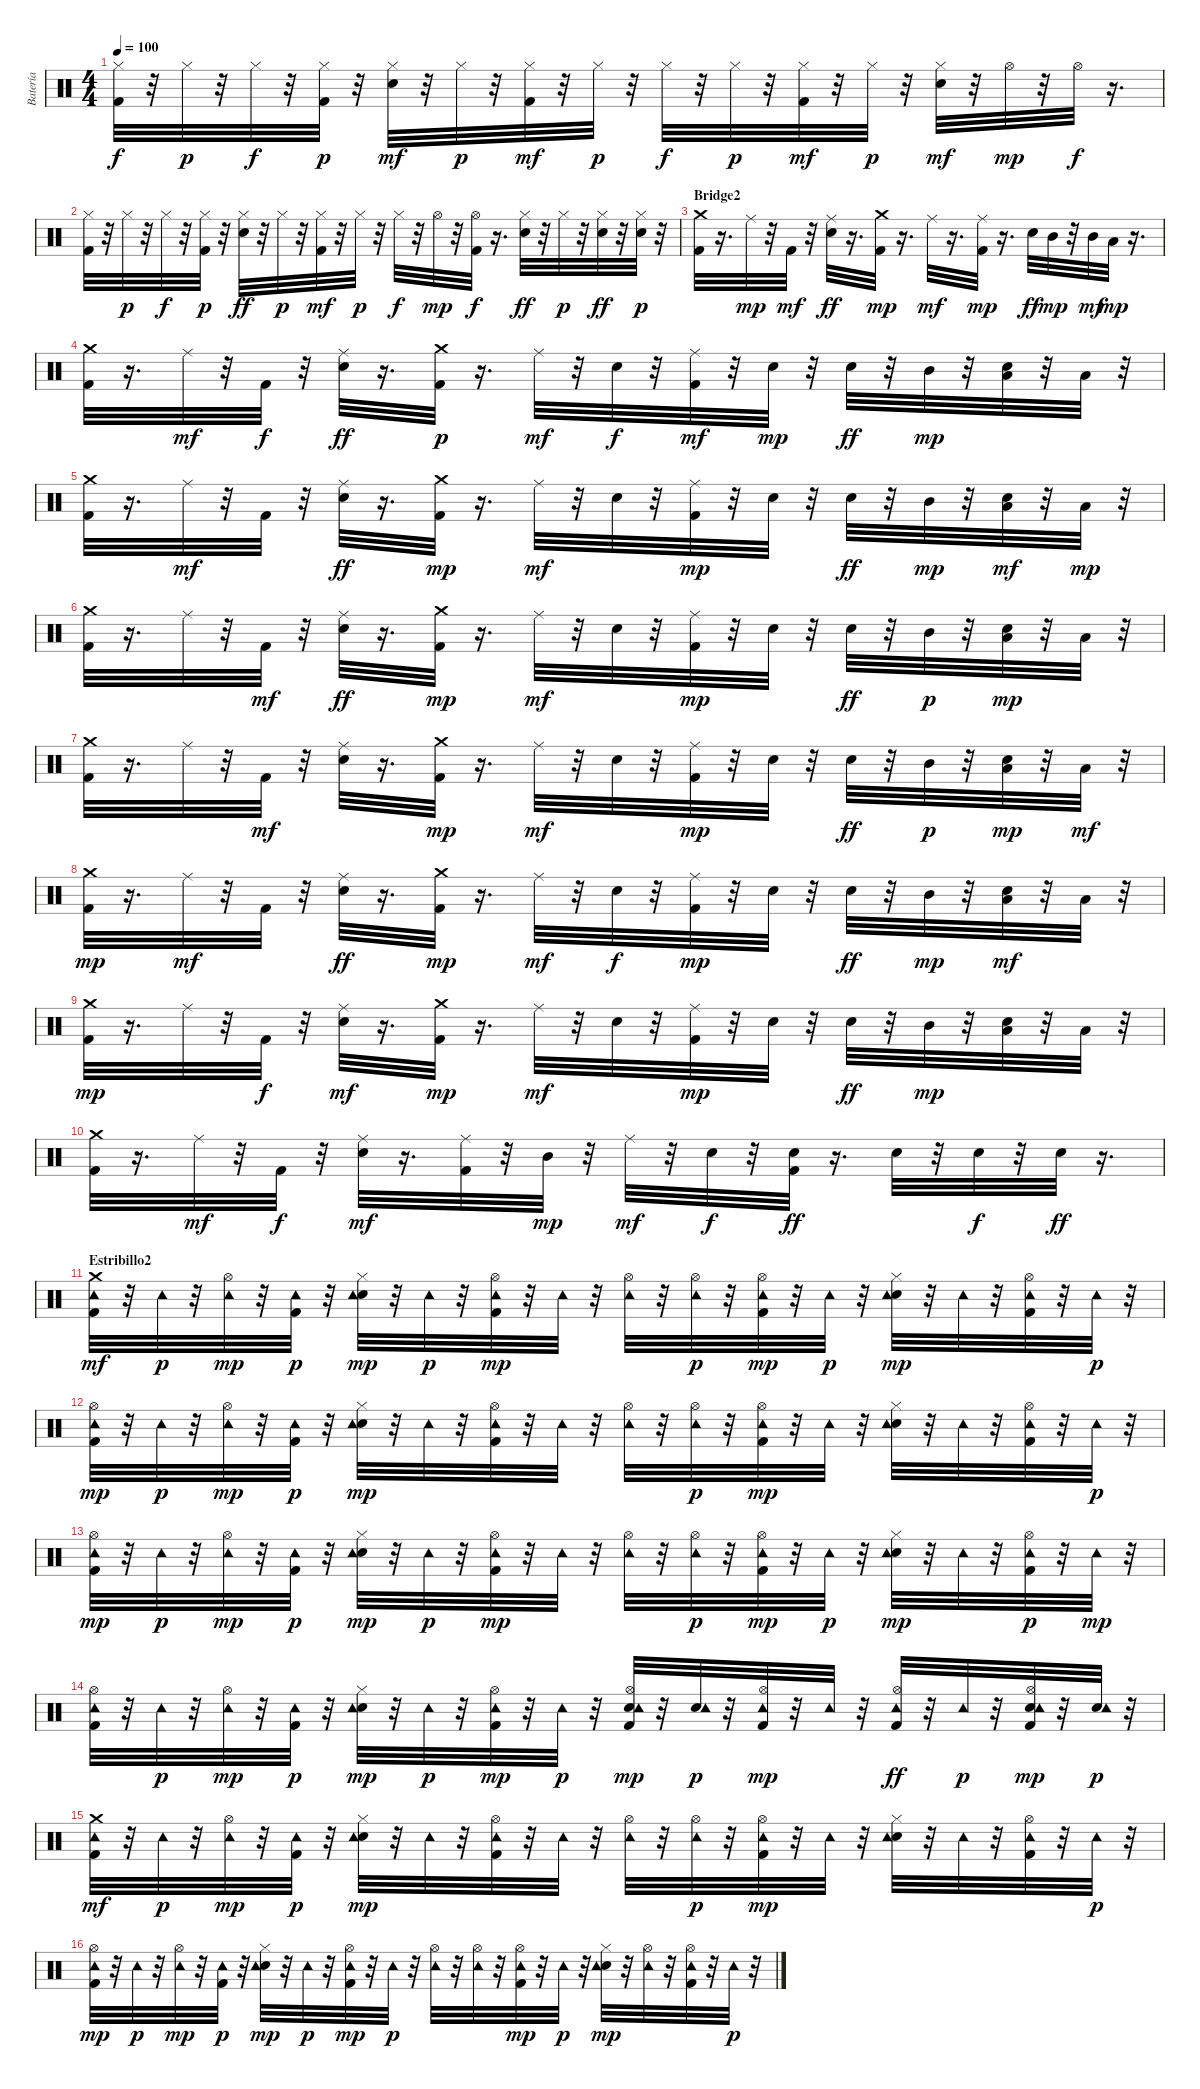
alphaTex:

\track ("Batería" "Batería") {instrument percussion}
\staff {score}
\articulation defaults
\ts (4 4)
\tempo 100
\clef neutral
\ks c
("Kick (hit) 2" "Hi-Hat (closed)").32{dy f} r.32 "Hi-Hat (closed)".32{dy p} r.32 "Hi-Hat (closed)".32{dy f} r.32 ("Kick (hit) 2" "Hi-Hat (closed)").32{dy p} r.32 ("Electric Snare (hit)" "Hi-Hat (closed)").32{dy mf} r.32 "Hi-Hat (closed)".32{dy p} r.32 ("Kick (hit) 2" "Hi-Hat (closed)").32{dy mf} r.32 "Hi-Hat (closed)".32{dy p} r.32 "Hi-Hat (closed)".32{dy f} r.32 "Hi-Hat (closed)".32{dy p} r.32 ("Kick (hit) 2" "Hi-Hat (closed)").32{dy mf} r.32 "Hi-Hat (closed)".32{dy p} r.32 ("Electric Snare (hit)" "Hi-Hat (closed)").32{dy mf} r.32 "Hi-Hat (open)".32{dy mp} r.32 "Hi-Hat (open)".32{dy f} r.16{d} |
("Kick (hit) 2" "Hi-Hat (closed)").32 r.32 "Hi-Hat (closed)".32{dy p} r.32 "Hi-Hat (closed)".32{dy f} r.32 ("Kick (hit) 2" "Hi-Hat (closed)").32{dy p} r.32 ("Electric Snare (hit)" "Hi-Hat (closed)").32{dy ff} r.32 "Hi-Hat (closed)".32{dy p} r.32 ("Kick (hit) 2" "Hi-Hat (closed)").32{dy mf} r.32 "Hi-Hat (closed)".32{dy p} r.32 "Hi-Hat (closed)".32{dy f} r.32 "Hi-Hat (open)".32{dy mp} r.32 ("Kick (hit) 2" "Hi-Hat (open)").32{dy f} r.16{d} ("Electric Snare (hit)" "Hi-Hat (closed)").32{dy ff} r.32 "Hi-Hat (closed)".32{dy p} r.32 ("Electric Snare (hit)" "Hi-Hat (closed)").32{dy ff} r.32 ("Electric Snare (hit)" "Hi-Hat (closed)").32{dy p} r.32 |
\section ("" "Bridge2")
("Kick (hit) 2" "Crash medium (hit)").32 r.16{d} "Ride (middle)".32{dy mp} r.32 "Kick (hit) 2".32{dy mf} r.32 ("Electric Snare (hit)" "Ride (middle)").32{dy ff} r.16{d} ("Kick (hit) 2" "Crash medium (hit)").32{dy mp} r.16{d} "Ride (middle)".32{dy mf} r.16{d} ("Kick (hit) 2" "Ride (middle)").32{dy mp} r.16{d} "Electric Snare (hit)".32{dy ff} "Mid Tom (hit)".32{dy mp} r.32 "Mid Tom (hit)".32{dy mf} "Low Tom (hit)".32{dy mp} r.16{d} |
("Kick (hit) 2" "Crash medium (hit)").32 r.16{d} "Ride (middle)".32{dy mf} r.32 "Kick (hit) 2".32{dy f} r.32 ("Electric Snare (hit)" "Ride (middle)").32{dy ff} r.16{d} ("Kick (hit) 2" "Crash medium (hit)").32{dy p} r.16{d} "Ride (middle)".32{dy mf} r.32 "Electric Snare (hit)".32{dy f} r.32 ("Kick (hit) 2" "Ride (middle)").32{dy mf} r.32 "Electric Snare (hit)".32{dy mp} r.32 "Electric Snare (hit)".32{dy ff} r.32 "Mid Tom (hit)".32{dy mp} r.32 ("Electric Snare (hit)" "Low Tom (hit)").32 r.32 "Low Tom (hit)".32 r.32 |
("Kick (hit) 2" "Crash medium (hit)").32 r.16{d} "Ride (middle)".32{dy mf} r.32 "Kick (hit) 2".32 r.32 ("Electric Snare (hit)" "Ride (middle)").32{dy ff} r.16{d} ("Kick (hit) 2" "Crash medium (hit)").32{dy mp} r.16{d} "Ride (middle)".32{dy mf} r.32 "Electric Snare (hit)".32 r.32 ("Kick (hit) 2" "Ride (middle)").32{dy mp} r.32 "Electric Snare (hit)".32 r.32 "Electric Snare (hit)".32{dy ff} r.32 "Mid Tom (hit)".32{dy mp} r.32 ("Electric Snare (hit)" "Low Tom (hit)").32{dy mf} r.32 "Low Tom (hit)".32{dy mp} r.32 |
("Kick (hit) 2" "Crash medium (hit)").32 r.16{d} "Ride (middle)".32 r.32 "Kick (hit) 2".32{dy mf} r.32 ("Electric Snare (hit)" "Ride (middle)").32{dy ff} r.16{d} ("Kick (hit) 2" "Crash medium (hit)").32{dy mp} r.16{d} "Ride (middle)".32{dy mf} r.32 "Electric Snare (hit)".32 r.32 ("Kick (hit) 2" "Ride (middle)").32{dy mp} r.32 "Electric Snare (hit)".32 r.32 "Electric Snare (hit)".32{dy ff} r.32 "Mid Tom (hit)".32{dy p} r.32 ("Electric Snare (hit)" "Low Tom (hit)").32{dy mp} r.32 "Low Tom (hit)".32 r.32 |
("Kick (hit) 2" "Crash medium (hit)").32 r.16{d} "Ride (middle)".32 r.32 "Kick (hit) 2".32{dy mf} r.32 ("Electric Snare (hit)" "Ride (middle)").32 r.16{d} ("Kick (hit) 2" "Crash medium (hit)").32{dy mp} r.16{d} "Ride (middle)".32{dy mf} r.32 "Electric Snare (hit)".32 r.32 ("Kick (hit) 2" "Ride (middle)").32{dy mp} r.32 "Electric Snare (hit)".32 r.32 "Electric Snare (hit)".32{dy ff} r.32 "Mid Tom (hit)".32{dy p} r.32 ("Electric Snare (hit)" "Low Tom (hit)").32{dy mp} r.32 "Low Tom (hit)".32{dy mf} r.32 |
("Kick (hit) 2" "Crash medium (hit)").32{dy mp} r.16{d} "Ride (middle)".32{dy mf} r.32 "Kick (hit) 2".32 r.32 ("Electric Snare (hit)" "Ride (middle)").32{dy ff} r.16{d} ("Kick (hit) 2" "Crash medium (hit)").32{dy mp} r.16{d} "Ride (middle)".32{dy mf} r.32 "Electric Snare (hit)".32{dy f} r.32 ("Kick (hit) 2" "Ride (middle)").32{dy mp} r.32 "Electric Snare (hit)".32 r.32 "Electric Snare (hit)".32{dy ff} r.32 "Mid Tom (hit)".32{dy mp} r.32 ("Electric Snare (hit)" "Low Tom (hit)").32{dy mf} r.32 "Low Tom (hit)".32 r.32 |
("Kick (hit) 2" "Crash medium (hit)").32{dy mp} r.16{d} "Ride (middle)".32 r.32 "Kick (hit) 2".32{dy f} r.32 ("Electric Snare (hit)" "Ride (middle)").32{dy mf} r.16{d} ("Kick (hit) 2" "Crash medium (hit)").32{dy mp} r.16{d} "Ride (middle)".32{dy mf} r.32 "Electric Snare (hit)".32 r.32 ("Kick (hit) 2" "Ride (middle)").32{dy mp} r.32 "Electric Snare (hit)".32 r.32 "Electric Snare (hit)".32{dy ff} r.32 "Mid Tom (hit)".32{dy mp} r.32 ("Electric Snare (hit)" "Low Tom (hit)").32 r.32 "Low Tom (hit)".32 r.32 |
("Kick (hit) 2" "Crash medium (hit)").32 r.16{d} "Ride (middle)".32{dy mf} r.32 "Kick (hit) 2".32{dy f} r.32 ("Electric Snare (hit)" "Ride (middle)").32{dy mf} r.16{d} ("Kick (hit) 2" "Ride (middle)").32 r.32 "Mid Tom (hit)".32{dy mp} r.32 "Ride (middle)".32{dy mf} r.32 "Electric Snare (hit)".32{dy f} r.32 ("Kick (hit) 2" "Electric Snare (hit)").32{dy ff} r.16{d} "Electric Snare (hit)".32 r.32 "Electric Snare (hit)".32{dy f} r.32 "Electric Snare (hit)".32{dy ff} r.16{d} |
\section ("" "Estribillo2")
("Kick (hit) 2" "Tambourine (hit)" "Crash medium (hit)").32{dy mf} r.32 "Tambourine (hit)".32{dy p} r.32 ("Hi-Hat (open)" "Tambourine (hit)").32{dy mp} r.32 ("Kick (hit) 2" "Tambourine (hit)").32{dy p} r.32 ("Electric Snare (hit)" "Hi-Hat (closed)" "Tambourine (hit)").32{dy mp} r.32 "Tambourine (hit)".32{dy p} r.32 ("Kick (hit) 2" "Hi-Hat (open)" "Tambourine (hit)").32{dy mp} r.32 "Tambourine (hit)".32 r.32 ("Hi-Hat (open)" "Tambourine (hit)").32 r.32 ("Hi-Hat (open)" "Tambourine (hit)").32{dy p} r.32 ("Kick (hit) 2" "Hi-Hat (open)" "Tambourine (hit)").32{dy mp} r.32 "Tambourine (hit)".32{dy p} r.32 ("Electric Snare (hit)" "Hi-Hat (closed)" "Tambourine (hit)").32{dy mp} r.32 "Tambourine (hit)".32 r.32 ("Kick (hit) 2" "Hi-Hat (open)" "Tambourine (hit)").32 r.32 "Tambourine (hit)".32{dy p} r.32 |
("Kick (hit) 2" "Hi-Hat (open)" "Tambourine (hit)").32{dy mp} r.32 "Tambourine (hit)".32{dy p} r.32 ("Hi-Hat (open)" "Tambourine (hit)").32{dy mp} r.32 ("Kick (hit) 2" "Tambourine (hit)").32{dy p} r.32 ("Electric Snare (hit)" "Hi-Hat (closed)" "Tambourine (hit)").32{dy mp} r.32 "Tambourine (hit)".32 r.32 ("Kick (hit) 2" "Hi-Hat (open)" "Tambourine (hit)").32 r.32 "Tambourine (hit)".32 r.32 ("Hi-Hat (open)" "Tambourine (hit)").32 r.32 ("Hi-Hat (open)" "Tambourine (hit)").32{dy p} r.32 ("Kick (hit) 2" "Hi-Hat (open)" "Tambourine (hit)").32{dy mp} r.32 "Tambourine (hit)".32 r.32 ("Electric Snare (hit)" "Hi-Hat (closed)" "Tambourine (hit)").32 r.32 "Tambourine (hit)".32 r.32 ("Kick (hit) 2" "Hi-Hat (open)" "Tambourine (hit)").32 r.32 "Tambourine (hit)".32{dy p} r.32 |
("Kick (hit) 2" "Hi-Hat (open)" "Tambourine (hit)").32{dy mp} r.32 "Tambourine (hit)".32{dy p} r.32 ("Hi-Hat (open)" "Tambourine (hit)").32{dy mp} r.32 ("Kick (hit) 2" "Tambourine (hit)").32{dy p} r.32 ("Electric Snare (hit)" "Hi-Hat (closed)" "Tambourine (hit)").32{dy mp} r.32 "Tambourine (hit)".32{dy p} r.32 ("Kick (hit) 2" "Hi-Hat (open)" "Tambourine (hit)").32{dy mp} r.32 "Tambourine (hit)".32 r.32 ("Hi-Hat (open)" "Tambourine (hit)").32 r.32 ("Hi-Hat (open)" "Tambourine (hit)").32{dy p} r.32 ("Kick (hit) 2" "Hi-Hat (open)" "Tambourine (hit)").32{dy mp} r.32 "Tambourine (hit)".32{dy p} r.32 ("Electric Snare (hit)" "Hi-Hat (closed)" "Tambourine (hit)").32{dy mp} r.32 "Tambourine (hit)".32 r.32 ("Kick (hit) 2" "Hi-Hat (open)" "Tambourine (hit)").32{dy p} r.32 "Tambourine (hit)".32{dy mp} r.32 |
("Kick (hit) 2" "Hi-Hat (open)" "Tambourine (hit)").32 r.32 "Tambourine (hit)".32{dy p} r.32 ("Hi-Hat (open)" "Tambourine (hit)").32{dy mp} r.32 ("Kick (hit) 2" "Tambourine (hit)").32{dy p} r.32 ("Electric Snare (hit)" "Hi-Hat (closed)" "Tambourine (hit)").32{dy mp} r.32 "Tambourine (hit)".32{dy p} r.32 ("Kick (hit) 2" "Hi-Hat (open)" "Tambourine (hit)").32{dy mp} r.32 "Tambourine (hit)".32{dy p} r.32 ("Kick (hit) 2" "Electric Snare (hit)" "Hi-Hat (open)" "Tambourine (hit)").32{dy mp} r.32 ("Electric Snare (hit)" "Tambourine (hit)").32{dy p} r.32 ("Kick (hit) 2" "Hi-Hat (open)" "Tambourine (hit)").32{dy mp} r.32 "Tambourine (hit)".32 r.32 ("Kick (hit) 2" "Hi-Hat (open)" "Tambourine (hit)").32{dy ff} r.32 "Tambourine (hit)".32{dy p} r.32 ("Kick (hit) 2" "Electric Snare (hit)" "Hi-Hat (open)" "Tambourine (hit)").32{dy mp} r.32 ("Electric Snare (hit)" "Tambourine (hit)").32{dy p} r.32 |
("Kick (hit) 2" "Tambourine (hit)" "Crash medium (hit)").32{dy mf} r.32 "Tambourine (hit)".32{dy p} r.32 ("Hi-Hat (open)" "Tambourine (hit)").32{dy mp} r.32 ("Kick (hit) 2" "Tambourine (hit)").32{dy p} r.32 ("Electric Snare (hit)" "Hi-Hat (closed)" "Tambourine (hit)").32{dy mp} r.32 "Tambourine (hit)".32 r.32 ("Kick (hit) 2" "Hi-Hat (open)" "Tambourine (hit)").32 r.32 "Tambourine (hit)".32 r.32 ("Hi-Hat (open)" "Tambourine (hit)").32 r.32 ("Hi-Hat (open)" "Tambourine (hit)").32{dy p} r.32 ("Kick (hit) 2" "Hi-Hat (open)" "Tambourine (hit)").32{dy mp} r.32 "Tambourine (hit)".32 r.32 ("Electric Snare (hit)" "Hi-Hat (closed)" "Tambourine (hit)").32 r.32 "Tambourine (hit)".32 r.32 ("Kick (hit) 2" "Hi-Hat (open)" "Tambourine (hit)").32 r.32 "Tambourine (hit)".32{dy p} r.32 |
("Kick (hit) 2" "Hi-Hat (open)" "Tambourine (hit)").32{dy mp} r.32 "Tambourine (hit)".32{dy p} r.32 ("Hi-Hat (open)" "Tambourine (hit)").32{dy mp} r.32 ("Kick (hit) 2" "Tambourine (hit)").32{dy p} r.32 ("Electric Snare (hit)" "Hi-Hat (closed)" "Tambourine (hit)").32{dy mp} r.32 "Tambourine (hit)".32{dy p} r.32 ("Kick (hit) 2" "Hi-Hat (open)" "Tambourine (hit)").32{dy mp} r.32 "Tambourine (hit)".32{dy p} r.32 ("Hi-Hat (open)" "Tambourine (hit)").32 r.32 ("Hi-Hat (open)" "Tambourine (hit)").32 r.32 ("Kick (hit) 2" "Hi-Hat (open)" "Tambourine (hit)").32{dy mp} r.32 "Tambourine (hit)".32{dy p} r.32 ("Electric Snare (hit)" "Hi-Hat (closed)" "Tambourine (hit)").32{dy mp} r.32 ("Hi-Hat (open)" "Tambourine (hit)").32 r.32 ("Kick (hit) 2" "Hi-Hat (open)" "Tambourine (hit)").32 r.32 "Tambourine (hit)".32{dy p} r.32
